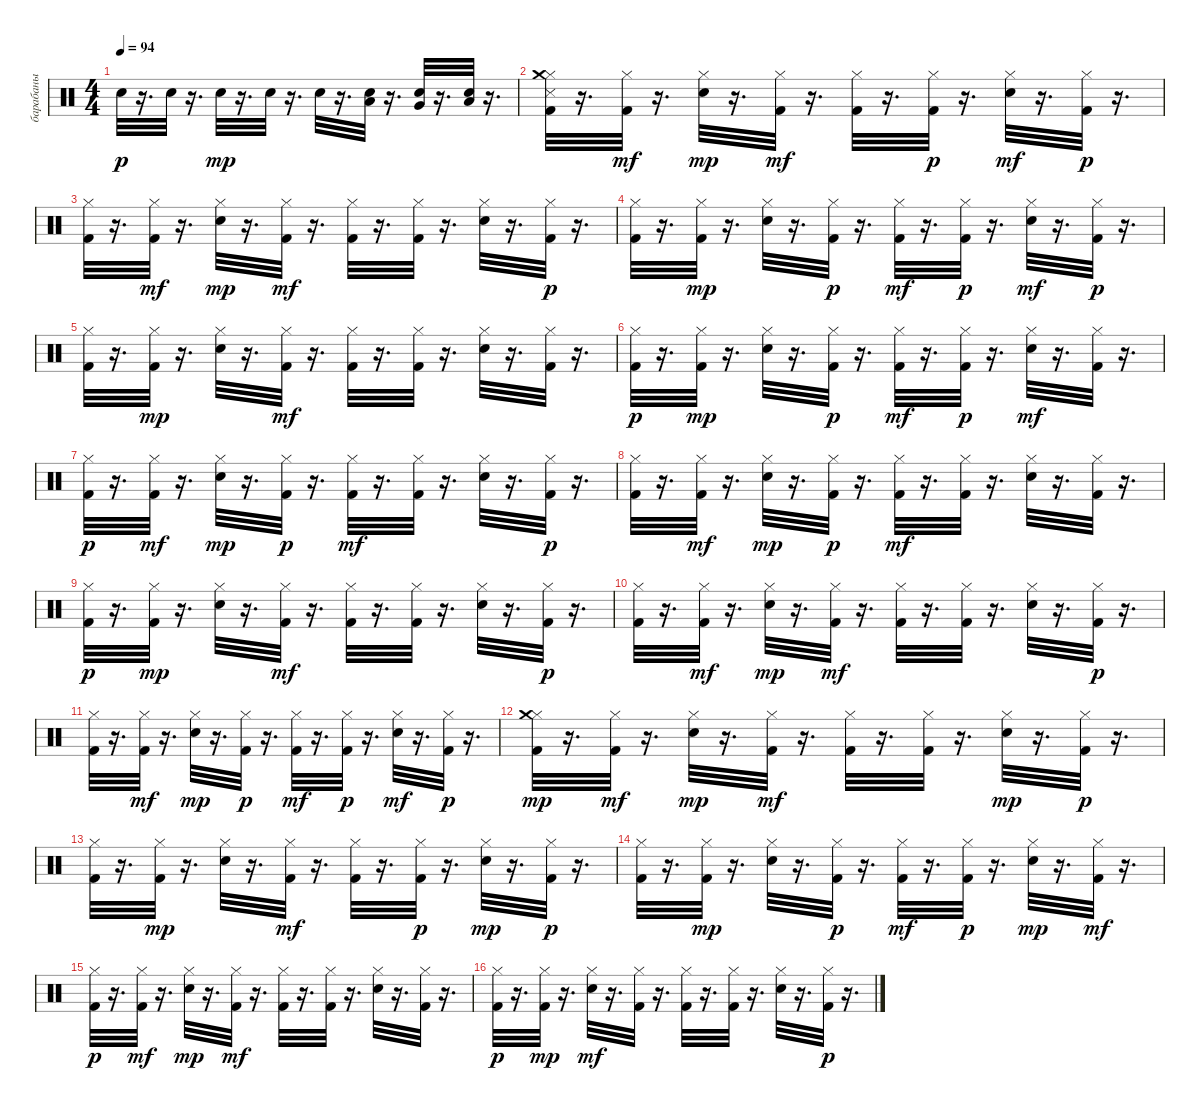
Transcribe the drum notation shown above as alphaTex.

\track ("барабаны" "барабаны") {instrument percussion}
\staff {score}
\articulation defaults
\ts (4 4)
\tempo 94
\clef neutral
\ks c "Snare (hit) 2".32{dy p}
r.16{d} "Snare (hit) 2".32 r.16{d} "Snare (hit) 2".32{dy mp} r.16{d} "Snare (hit) 2".32 r.16{d} "Snare (hit) 2".32 r.16{d} ("Snare (hit) 2" "Low Tom (hit)").32 r.16{d} ("Snare (hit) 2" "Very Low Tom (hit)").32 r.16{d} ("Low Floor Tom (hit)" "Snare (hit) 2").32 r.16{d} |
("Hi-Hat (closed)" "Metronome (hit)" "Kick (hit) 2" "Crash medium (hit)").32 r.16{d} ("Kick (hit) 2" "Hi-Hat (closed)").32{dy mf} r.16{d} ("Hi-Hat (closed)" "Metronome (bell)").32{dy mp} r.16{d} ("Kick (hit) 2" "Hi-Hat (closed)").32{dy mf} r.16{d} ("Kick (hit) 2" "Hi-Hat (closed)").32 r.16{d} ("Hi-Hat (closed)" "Kick (hit) 2").32{dy p} r.16{d} ("Metronome (bell)" "Hi-Hat (closed)").32{dy mf} r.16{d} ("Hi-Hat (closed)" "Kick (hit) 2").32{dy p} r.16{d} |
("Kick (hit) 2" "Hi-Hat (closed)").32 r.16{d} ("Kick (hit) 2" "Hi-Hat (closed)").32{dy mf} r.16{d} ("Hi-Hat (closed)" "Metronome (bell)").32{dy mp} r.16{d} ("Kick (hit) 2" "Hi-Hat (closed)").32{dy mf} r.16{d} ("Hi-Hat (closed)" "Kick (hit) 2").32 r.16{d} ("Kick (hit) 2" "Hi-Hat (closed)").32 r.16{d} ("Hi-Hat (closed)" "Metronome (bell)").32 r.16{d} ("Hi-Hat (closed)" "Kick (hit) 2").32{dy p} r.16{d} |
("Hi-Hat (closed)" "Kick (hit) 2").32 r.16{d} ("Hi-Hat (closed)" "Kick (hit) 2").32{dy mp} r.16{d} ("Hi-Hat (closed)" "Metronome (bell)").32 r.16{d} ("Hi-Hat (closed)" "Kick (hit) 2").32{dy p} r.16{d} ("Kick (hit) 2" "Hi-Hat (closed)").32{dy mf} r.16{d} ("Hi-Hat (closed)" "Kick (hit) 2").32{dy p} r.16{d} ("Hi-Hat (closed)" "Metronome (bell)").32{dy mf} r.16{d} ("Hi-Hat (closed)" "Kick (hit) 2").32{dy p} r.16{d} |
("Kick (hit) 2" "Hi-Hat (closed)").32 r.16{d} ("Hi-Hat (closed)" "Kick (hit) 2").32{dy mp} r.16{d} ("Hi-Hat (closed)" "Metronome (bell)").32 r.16{d} ("Kick (hit) 2" "Hi-Hat (closed)").32{dy mf} r.16{d} ("Kick (hit) 2" "Hi-Hat (closed)").32 r.16{d} ("Kick (hit) 2" "Hi-Hat (closed)").32 r.16{d} ("Hi-Hat (closed)" "Metronome (bell)").32 r.16{d} ("Kick (hit) 2" "Hi-Hat (closed)").32 r.16{d} |
("Hi-Hat (closed)" "Kick (hit) 2").32{dy p} r.16{d} ("Hi-Hat (closed)" "Kick (hit) 2").32{dy mp} r.16{d} ("Metronome (bell)" "Hi-Hat (closed)").32 r.16{d} ("Hi-Hat (closed)" "Kick (hit) 2").32{dy p} r.16{d} ("Kick (hit) 2" "Hi-Hat (closed)").32{dy mf} r.16{d} ("Hi-Hat (closed)" "Kick (hit) 2").32{dy p} r.16{d} ("Hi-Hat (closed)" "Metronome (bell)").32{dy mf} r.16{d} ("Kick (hit) 2" "Hi-Hat (closed)").32 r.16{d} |
("Hi-Hat (closed)" "Kick (hit) 2").32{dy p} r.16{d} ("Kick (hit) 2" "Hi-Hat (closed)").32{dy mf} r.16{d} ("Metronome (bell)" "Hi-Hat (closed)").32{dy mp} r.16{d} ("Hi-Hat (closed)" "Kick (hit) 2").32{dy p} r.16{d} ("Kick (hit) 2" "Hi-Hat (closed)").32{dy mf} r.16{d} ("Kick (hit) 2" "Hi-Hat (closed)").32 r.16{d} ("Metronome (bell)" "Hi-Hat (closed)").32 r.16{d} ("Hi-Hat (closed)" "Kick (hit) 2").32{dy p} r.16{d} |
("Hi-Hat (closed)" "Kick (hit) 2").32 r.16{d} ("Kick (hit) 2" "Hi-Hat (closed)").32{dy mf} r.16{d} ("Hi-Hat (closed)" "Metronome (bell)").32{dy mp} r.16{d} ("Hi-Hat (closed)" "Kick (hit) 2").32{dy p} r.16{d} ("Kick (hit) 2" "Hi-Hat (closed)").32{dy mf} r.16{d} ("Kick (hit) 2" "Hi-Hat (closed)").32 r.16{d} ("Metronome (bell)" "Hi-Hat (closed)").32 r.16{d} ("Kick (hit) 2" "Hi-Hat (closed)").32 r.16{d} |
("Hi-Hat (closed)" "Kick (hit) 2").32{dy p} r.16{d} ("Hi-Hat (closed)" "Kick (hit) 2").32{dy mp} r.16{d} ("Hi-Hat (closed)" "Metronome (bell)").32 r.16{d} ("Kick (hit) 2" "Hi-Hat (closed)").32{dy mf} r.16{d} ("Kick (hit) 2" "Hi-Hat (closed)").32 r.16{d} ("Kick (hit) 2" "Hi-Hat (closed)").32 r.16{d} ("Metronome (bell)" "Hi-Hat (closed)").32 r.16{d} ("Hi-Hat (closed)" "Kick (hit) 2").32{dy p} r.16{d} |
("Hi-Hat (closed)" "Kick (hit) 2").32 r.16{d} ("Kick (hit) 2" "Hi-Hat (closed)").32{dy mf} r.16{d} ("Metronome (bell)" "Hi-Hat (closed)").32{dy mp} r.16{d} ("Kick (hit) 2" "Hi-Hat (closed)").32{dy mf} r.16{d} ("Hi-Hat (closed)" "Kick (hit) 2").32 r.16{d} ("Kick (hit) 2" "Hi-Hat (closed)").32 r.16{d} ("Hi-Hat (closed)" "Metronome (bell)").32 r.16{d} ("Hi-Hat (closed)" "Kick (hit) 2").32{dy p} r.16{d} |
("Hi-Hat (closed)" "Kick (hit) 2").32 r.16{d} ("Kick (hit) 2" "Hi-Hat (closed)").32{dy mf} r.16{d} ("Metronome (bell)" "Hi-Hat (closed)").32{dy mp} r.16{d} ("Hi-Hat (closed)" "Kick (hit) 2").32{dy p} r.16{d} ("Hi-Hat (closed)" "Kick (hit) 2").32{dy mf} r.16{d} ("Hi-Hat (closed)" "Kick (hit) 2").32{dy p} r.16{d} ("Hi-Hat (closed)" "Metronome (bell)").32{dy mf} r.16{d} ("Hi-Hat (closed)" "Kick (hit) 2").32{dy p} r.16{d} |
("Hi-Hat (closed)" "Crash medium (hit)" "Kick (hit) 2").32{dy mp} r.16{d} ("Kick (hit) 2" "Hi-Hat (closed)").32{dy mf} r.16{d} ("Hi-Hat (closed)" "Metronome (bell)").32{dy mp} r.16{d} ("Kick (hit) 2" "Hi-Hat (closed)").32{dy mf} r.16{d} ("Hi-Hat (closed)" "Kick (hit) 2").32 r.16{d} ("Kick (hit) 2" "Hi-Hat (closed)").32 r.16{d} ("Metronome (bell)" "Hi-Hat (closed)").32{dy mp} r.16{d} ("Hi-Hat (closed)" "Kick (hit) 2").32{dy p} r.16{d} |
("Kick (hit) 2" "Hi-Hat (closed)").32 r.16{d} ("Hi-Hat (closed)" "Kick (hit) 2").32{dy mp} r.16{d} ("Metronome (bell)" "Hi-Hat (closed)").32 r.16{d} ("Kick (hit) 2" "Hi-Hat (closed)").32{dy mf} r.16{d} ("Hi-Hat (closed)" "Kick (hit) 2").32 r.16{d} ("Hi-Hat (closed)" "Kick (hit) 2").32{dy p} r.16{d} ("Hi-Hat (closed)" "Metronome (bell)").32{dy mp} r.16{d} ("Hi-Hat (closed)" "Kick (hit) 2").32{dy p} r.16{d} |
("Kick (hit) 2" "Hi-Hat (closed)").32 r.16{d} ("Hi-Hat (closed)" "Kick (hit) 2").32{dy mp} r.16{d} ("Metronome (bell)" "Hi-Hat (closed)").32 r.16{d} ("Hi-Hat (closed)" "Kick (hit) 2").32{dy p} r.16{d} ("Kick (hit) 2" "Hi-Hat (closed)").32{dy mf} r.16{d} ("Hi-Hat (closed)" "Kick (hit) 2").32{dy p} r.16{d} ("Metronome (bell)" "Hi-Hat (closed)").32{dy mp} r.16{d} ("Kick (hit) 2" "Hi-Hat (closed)").32{dy mf} r.16{d} |
("Kick (hit) 2" "Hi-Hat (closed)").32{dy p} r.16{d} ("Kick (hit) 2" "Hi-Hat (closed)").32{dy mf} r.16{d} ("Metronome (bell)" "Hi-Hat (closed)").32{dy mp} r.16{d} ("Kick (hit) 2" "Hi-Hat (closed)").32{dy mf} r.16{d} ("Hi-Hat (closed)" "Kick (hit) 2").32 r.16{d} ("Kick (hit) 2" "Hi-Hat (closed)").32 r.16{d} ("Metronome (bell)" "Hi-Hat (closed)").32 r.16{d} ("Kick (hit) 2" "Hi-Hat (closed)").32 r.16{d} |
("Hi-Hat (closed)" "Kick (hit) 2").32{dy p} r.16{d} ("Hi-Hat (closed)" "Kick (hit) 2").32{dy mp} r.16{d} ("Hi-Hat (closed)" "Metronome (bell)").32{dy mf} r.16{d} ("Kick (hit) 2" "Hi-Hat (closed)").32 r.16{d} ("Hi-Hat (closed)" "Kick (hit) 2").32 r.16{d} ("Kick (hit) 2" "Hi-Hat (closed)").32 r.16{d} ("Hi-Hat (closed)" "Metronome (bell)").32 r.16{d} ("Hi-Hat (closed)" "Kick (hit) 2").32{dy p} r.16{d}
